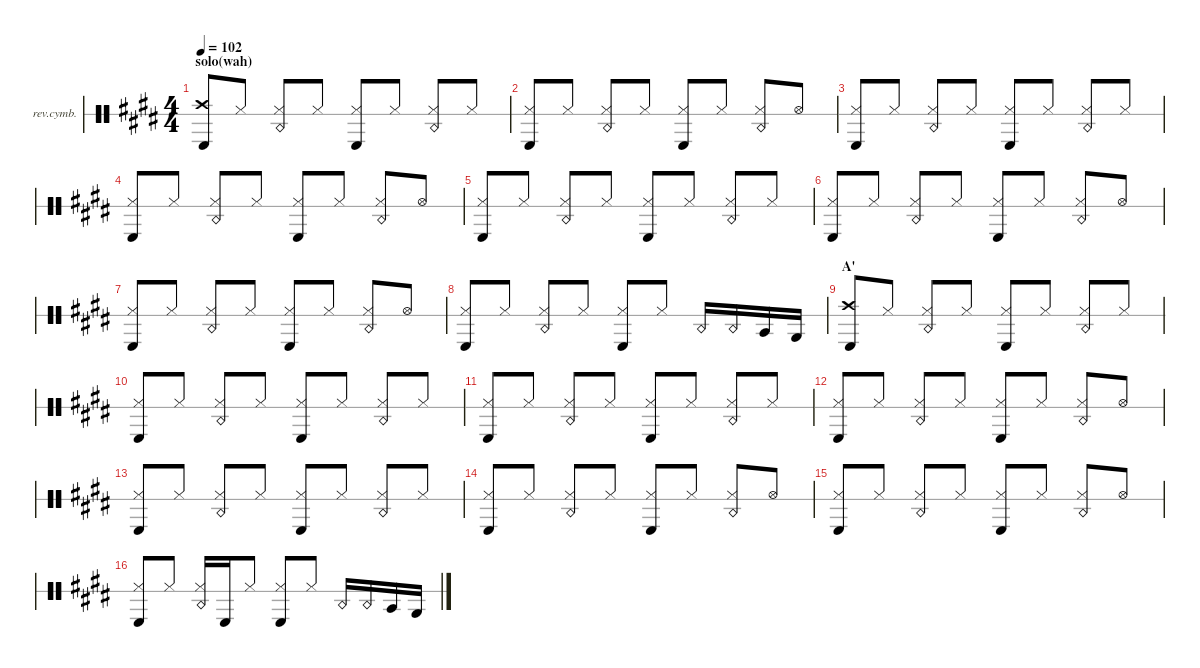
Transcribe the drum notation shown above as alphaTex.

\defaultSystemsLayout 4
\hideDynamics
\bracketExtendMode nobrackets
\firstSystemTrackNameOrientation horizontal
\otherSystemsTrackNameOrientation horizontal
\track ("Reverse Cymbal" "rev.cymb.") {defaultSystemsLayout 4 instrument percussion}
\staff {score 1}
\articulation defaults
\ts (4 4)
\section ("" "solo(wah)")
\tempo 102
\clef neutral
\ks e
("Kick (hit) 2"{acc forcenatural} "Crash high (hit)"{acc forcenatural}).8{dy mf beam Up} "Hi-Hat (closed)"{acc forcenatural}.8{beam Up} ("Hi-Hat (closed)"{acc forcenatural} "Snare (rim shot)"{acc forcenatural}).8{dy f beam Up} "Hi-Hat (closed)"{acc forcenatural}.8{dy mf beam Up} ("Kick (hit) 2"{acc forcenatural} "Hi-Hat (closed)"{acc forcenatural}).8{beam Up} "Hi-Hat (closed)"{acc forcenatural}.8{beam Up} ("Hi-Hat (closed)"{acc forcenatural} "Snare (rim shot)"{acc forcenatural}).8{dy f beam Up} "Hi-Hat (closed)"{acc forcenatural}.8{dy mf beam Up} |
("Kick (hit) 2"{acc forcenatural} "Hi-Hat (closed)"{acc forcenatural}).8{beam Up} "Hi-Hat (closed)"{acc forcenatural}.8{beam Up} ("Hi-Hat (closed)"{acc forcenatural} "Snare (rim shot)"{acc forcenatural}).8{dy f beam Up} "Hi-Hat (closed)"{acc forcenatural}.8{dy mf beam Up} ("Kick (hit) 2"{acc forcenatural} "Hi-Hat (closed)"{acc forcenatural}).8{beam Up} "Hi-Hat (closed)"{acc forcenatural}.8{beam Up} ("Hi-Hat (closed)"{acc forcenatural} "Snare (rim shot)"{acc forcenatural}).8{dy f beam Up} "Hi-Hat (open)"{acc forcenatural}.8{dy mf beam Up} |
("Kick (hit) 2"{acc forcenatural} "Hi-Hat (closed)"{acc forcenatural}).8{beam Up} "Hi-Hat (closed)"{acc forcenatural}.8{beam Up} ("Hi-Hat (closed)"{acc forcenatural} "Snare (rim shot)"{acc forcenatural}).8{dy f beam Up} "Hi-Hat (closed)"{acc forcenatural}.8{dy mf beam Up} ("Kick (hit) 2"{acc forcenatural} "Hi-Hat (closed)"{acc forcenatural}).8{beam Up} "Hi-Hat (closed)"{acc forcenatural}.8{beam Up} ("Hi-Hat (closed)"{acc forcenatural} "Snare (rim shot)"{acc forcenatural}).8{dy f beam Up} "Hi-Hat (closed)"{acc forcenatural}.8{dy mf beam Up} |
("Kick (hit) 2"{acc forcenatural} "Hi-Hat (closed)"{acc forcenatural}).8{beam Up} "Hi-Hat (closed)"{acc forcenatural}.8{beam Up} ("Hi-Hat (closed)"{acc forcenatural} "Snare (rim shot)"{acc forcenatural}).8{dy f beam Up} "Hi-Hat (closed)"{acc forcenatural}.8{dy mf beam Up} ("Kick (hit) 2"{acc forcenatural} "Hi-Hat (closed)"{acc forcenatural}).8{beam Up} "Hi-Hat (closed)"{acc forcenatural}.8{beam Up} ("Hi-Hat (closed)"{acc forcenatural} "Snare (rim shot)"{acc forcenatural}).8{dy f beam Up} "Hi-Hat (open)"{acc forcenatural}.8{dy mf beam Up} |
("Kick (hit) 2"{acc forcenatural} "Hi-Hat (closed)"{acc forcenatural}).8{beam Up} "Hi-Hat (closed)"{acc forcenatural}.8{beam Up} ("Hi-Hat (closed)"{acc forcenatural} "Snare (rim shot)"{acc forcenatural}).8{dy f beam Up} "Hi-Hat (closed)"{acc forcenatural}.8{dy mf beam Up} ("Kick (hit) 2"{acc forcenatural} "Hi-Hat (closed)"{acc forcenatural}).8{beam Up} "Hi-Hat (closed)"{acc forcenatural}.8{beam Up} ("Hi-Hat (closed)"{acc forcenatural} "Snare (rim shot)"{acc forcenatural}).8{dy f beam Up} "Hi-Hat (closed)"{acc forcenatural}.8{dy mf beam Up} |
("Kick (hit) 2"{acc forcenatural} "Hi-Hat (closed)"{acc forcenatural}).8{beam Up} "Hi-Hat (closed)"{acc forcenatural}.8{beam Up} ("Hi-Hat (closed)"{acc forcenatural} "Snare (rim shot)"{acc forcenatural}).8{dy f beam Up} "Hi-Hat (closed)"{acc forcenatural}.8{dy mf beam Up} ("Kick (hit) 2"{acc forcenatural} "Hi-Hat (closed)"{acc forcenatural}).8{beam Up} "Hi-Hat (closed)"{acc forcenatural}.8{beam Up} ("Hi-Hat (closed)"{acc forcenatural} "Snare (rim shot)"{acc forcenatural}).8{dy f beam Up} "Hi-Hat (open)"{acc forcenatural}.8{dy mf beam Up} |
("Kick (hit) 2"{acc forcenatural} "Hi-Hat (closed)"{acc forcenatural}).8{beam Up} "Hi-Hat (closed)"{acc forcenatural}.8{beam Up} ("Hi-Hat (closed)"{acc forcenatural} "Snare (rim shot)"{acc forcenatural}).8{dy f beam Up} "Hi-Hat (closed)"{acc forcenatural}.8{dy mf beam Up} ("Kick (hit) 2"{acc forcenatural} "Hi-Hat (closed)"{acc forcenatural}).8{beam Up} "Hi-Hat (closed)"{acc forcenatural}.8{beam Up} ("Hi-Hat (closed)"{acc forcenatural} "Snare (rim shot)"{acc forcenatural}).8{dy f beam Up} "Hi-Hat (open)"{acc forcenatural}.8{dy mf beam Up} |
("Kick (hit) 2"{acc forcenatural} "Hi-Hat (closed)"{acc forcenatural}).8{beam Up} "Hi-Hat (closed)"{acc forcenatural}.8{beam Up} ("Hi-Hat (closed)"{acc forcenatural} "Snare (rim shot)"{acc forcenatural}).8{dy f beam Up} "Hi-Hat (closed)"{acc forcenatural}.8{dy mf beam Up} ("Kick (hit) 2"{acc forcenatural} "Hi-Hat (closed)"{acc forcenatural}).8{beam Up} "Hi-Hat (closed)"{acc forcenatural}.8{beam Up} "Snare (rim shot)"{acc forcenatural}.16{dy f beam Up} "Snare (rim shot)"{acc forcenatural}.16{beam Up} "Mid Tom (hit)"{acc forcenatural}.16{beam Up} "Low Tom (hit)"{acc forcenatural}.16{beam Up} |
\section ("" "A'")
("Kick (hit) 2"{acc forcenatural} "Crash high (hit)"{acc forcenatural}).8{dy mf beam Up} "Hi-Hat (closed)"{acc forcenatural}.8{beam Up} ("Hi-Hat (closed)"{acc forcenatural} "Snare (rim shot)"{acc forcenatural}).8{dy f beam Up} "Hi-Hat (closed)"{acc forcenatural}.8{dy mf beam Up} ("Kick (hit) 2"{acc forcenatural} "Hi-Hat (closed)"{acc forcenatural}).8{beam Up} "Hi-Hat (closed)"{acc forcenatural}.8{beam Up} ("Hi-Hat (closed)"{acc forcenatural} "Snare (rim shot)"{acc forcenatural}).8{dy f beam Up} "Hi-Hat (closed)"{acc forcenatural}.8{dy mf beam Up} |
("Kick (hit) 2"{acc forcenatural} "Hi-Hat (closed)"{acc forcenatural}).8{beam Up} "Hi-Hat (closed)"{acc forcenatural}.8{beam Up} ("Hi-Hat (closed)"{acc forcenatural} "Snare (rim shot)"{acc forcenatural}).8{dy f beam Up} "Hi-Hat (closed)"{acc forcenatural}.8{dy mf beam Up} ("Kick (hit) 2"{acc forcenatural} "Hi-Hat (closed)"{acc forcenatural}).8{beam Up} "Hi-Hat (closed)"{acc forcenatural}.8{beam Up} ("Hi-Hat (closed)"{acc forcenatural} "Snare (rim shot)"{acc forcenatural}).8{dy f beam Up} "Hi-Hat (closed)"{acc forcenatural}.8{dy mf beam Up} |
("Kick (hit) 2"{acc forcenatural} "Hi-Hat (closed)"{acc forcenatural}).8{beam Up} "Hi-Hat (closed)"{acc forcenatural}.8{beam Up} ("Hi-Hat (closed)"{acc forcenatural} "Snare (rim shot)"{acc forcenatural}).8{dy f beam Up} "Hi-Hat (closed)"{acc forcenatural}.8{dy mf beam Up} ("Kick (hit) 2"{acc forcenatural} "Hi-Hat (closed)"{acc forcenatural}).8{beam Up} "Hi-Hat (closed)"{acc forcenatural}.8{beam Up} ("Hi-Hat (closed)"{acc forcenatural} "Snare (rim shot)"{acc forcenatural}).8{dy f beam Up} "Hi-Hat (closed)"{acc forcenatural}.8{dy mf beam Up} |
("Kick (hit) 2"{acc forcenatural} "Hi-Hat (closed)"{acc forcenatural}).8{beam Up} "Hi-Hat (closed)"{acc forcenatural}.8{beam Up} ("Hi-Hat (closed)"{acc forcenatural} "Snare (rim shot)"{acc forcenatural}).8{dy f beam Up} "Hi-Hat (closed)"{acc forcenatural}.8{dy mf beam Up} ("Kick (hit) 2"{acc forcenatural} "Hi-Hat (closed)"{acc forcenatural}).8{beam Up} "Hi-Hat (closed)"{acc forcenatural}.8{beam Up} ("Hi-Hat (closed)"{acc forcenatural} "Snare (rim shot)"{acc forcenatural}).8{dy f beam Up} "Hi-Hat (open)"{acc forcenatural}.8{dy mf beam Up} |
("Kick (hit) 2"{acc forcenatural} "Hi-Hat (closed)"{acc forcenatural}).8{beam Up} "Hi-Hat (closed)"{acc forcenatural}.8{beam Up} ("Hi-Hat (closed)"{acc forcenatural} "Snare (rim shot)"{acc forcenatural}).8{dy f beam Up} "Hi-Hat (closed)"{acc forcenatural}.8{dy mf beam Up} ("Kick (hit) 2"{acc forcenatural} "Hi-Hat (closed)"{acc forcenatural}).8{beam Up} "Hi-Hat (closed)"{acc forcenatural}.8{beam Up} ("Hi-Hat (closed)"{acc forcenatural} "Snare (rim shot)"{acc forcenatural}).8{dy f beam Up} "Hi-Hat (closed)"{acc forcenatural}.8{dy mf beam Up} |
("Kick (hit) 2"{acc forcenatural} "Hi-Hat (closed)"{acc forcenatural}).8{beam Up} "Hi-Hat (closed)"{acc forcenatural}.8{beam Up} ("Hi-Hat (closed)"{acc forcenatural} "Snare (rim shot)"{acc forcenatural}).8{dy f beam Up} "Hi-Hat (closed)"{acc forcenatural}.8{dy mf beam Up} ("Kick (hit) 2"{acc forcenatural} "Hi-Hat (closed)"{acc forcenatural}).8{beam Up} "Hi-Hat (closed)"{acc forcenatural}.8{beam Up} ("Hi-Hat (closed)"{acc forcenatural} "Snare (rim shot)"{acc forcenatural}).8{dy f beam Up} "Hi-Hat (open)"{acc forcenatural}.8{dy mf beam Up} |
("Kick (hit) 2"{acc forcenatural} "Hi-Hat (closed)"{acc forcenatural}).8{beam Up} "Hi-Hat (closed)"{acc forcenatural}.8{beam Up} ("Hi-Hat (closed)"{acc forcenatural} "Snare (rim shot)"{acc forcenatural}).8{dy f beam Up} "Hi-Hat (closed)"{acc forcenatural}.8{dy mf beam Up} ("Kick (hit) 2"{acc forcenatural} "Hi-Hat (closed)"{acc forcenatural}).8{beam Up} "Hi-Hat (closed)"{acc forcenatural}.8{beam Up} ("Hi-Hat (closed)"{acc forcenatural} "Snare (rim shot)"{acc forcenatural}).8{dy f beam Up} "Hi-Hat (open)"{acc forcenatural}.8{dy mf beam Up} |
("Kick (hit) 2"{acc forcenatural} "Hi-Hat (closed)"{acc forcenatural}).8{beam Up} "Hi-Hat (closed)"{acc forcenatural}.8{beam Up} ("Hi-Hat (closed)"{acc forcenatural} "Snare (rim shot)"{acc forcenatural}).16{dy f beam Up} "Kick (hit) 2"{acc forcenatural}.16{dy mf beam Up} "Hi-Hat (closed)"{acc forcenatural}.8{beam Up} ("Hi-Hat (closed)"{acc forcenatural} "Kick (hit) 2"{acc forcenatural}).8{beam Up} "Hi-Hat (closed)"{acc forcenatural}.8{beam Up} "Snare (rim shot)"{acc forcenatural}.16{dy f beam Up} "Snare (rim shot)"{acc forcenatural}.16{beam Up} "Mid Tom (hit)"{acc forcenatural}.16{beam Up} "Low Tom (hit)"{acc forcenatural}.16{beam Up}
